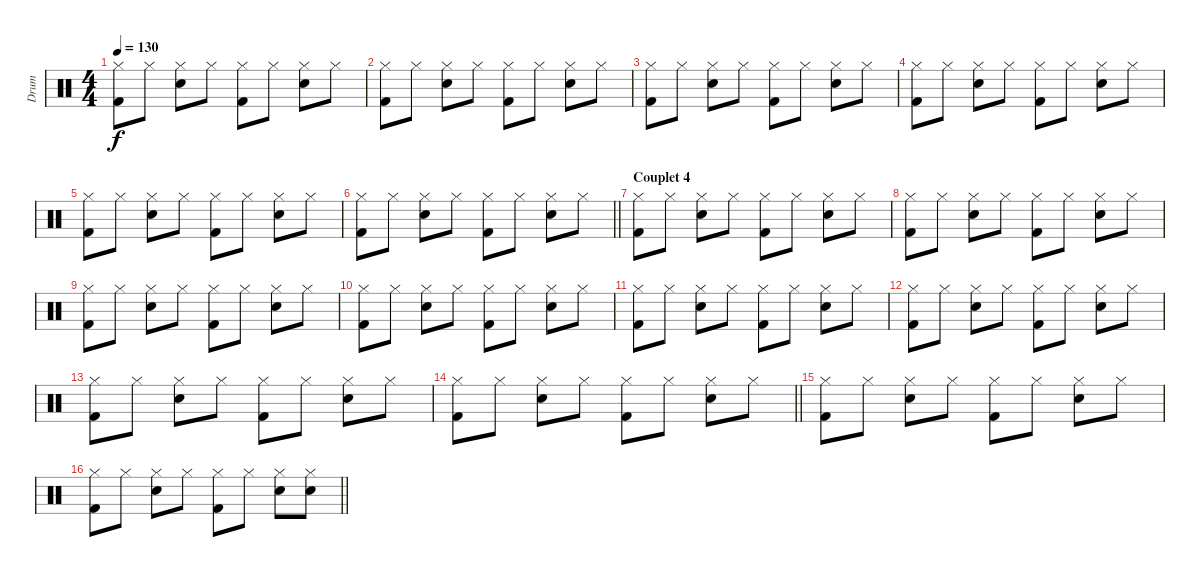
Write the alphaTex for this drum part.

\track ("Drum" "Drum") {instrument percussion}
\staff {score}
\articulation defaults
\ts (4 4)
\tempo 130
\clef neutral
\ks c
("Hi-Hat (closed)" "Kick (hit) 2").8{dy f} "Hi-Hat (closed)".8 ("Snare (hit) 2" "Hi-Hat (closed)").8 "Hi-Hat (closed)".8 ("Hi-Hat (closed)" "Kick (hit) 2").8 "Hi-Hat (closed)".8 ("Snare (hit) 2" "Hi-Hat (closed)").8 "Hi-Hat (closed)".8 |
("Hi-Hat (closed)" "Kick (hit) 2").8 "Hi-Hat (closed)".8 ("Snare (hit) 2" "Hi-Hat (closed)").8 "Hi-Hat (closed)".8 ("Hi-Hat (closed)" "Kick (hit) 2").8 "Hi-Hat (closed)".8 ("Snare (hit) 2" "Hi-Hat (closed)").8 "Hi-Hat (closed)".8 |
("Hi-Hat (closed)" "Kick (hit) 2").8 "Hi-Hat (closed)".8 ("Snare (hit) 2" "Hi-Hat (closed)").8 "Hi-Hat (closed)".8 ("Hi-Hat (closed)" "Kick (hit) 2").8 "Hi-Hat (closed)".8 ("Snare (hit) 2" "Hi-Hat (closed)").8 "Hi-Hat (closed)".8 |
("Hi-Hat (closed)" "Kick (hit) 2").8 "Hi-Hat (closed)".8 ("Snare (hit) 2" "Hi-Hat (closed)").8 "Hi-Hat (closed)".8 ("Hi-Hat (closed)" "Kick (hit) 2").8 "Hi-Hat (closed)".8 ("Snare (hit) 2" "Hi-Hat (closed)").8 "Hi-Hat (closed)".8 |
("Hi-Hat (closed)" "Kick (hit) 2").8 "Hi-Hat (closed)".8 ("Snare (hit) 2" "Hi-Hat (closed)").8 "Hi-Hat (closed)".8 ("Hi-Hat (closed)" "Kick (hit) 2").8 "Hi-Hat (closed)".8 ("Snare (hit) 2" "Hi-Hat (closed)").8 "Hi-Hat (closed)".8 |
\barLineRight lightlight
("Hi-Hat (closed)" "Kick (hit) 2").8 "Hi-Hat (closed)".8 ("Snare (hit) 2" "Hi-Hat (closed)").8 "Hi-Hat (closed)".8 ("Hi-Hat (closed)" "Kick (hit) 2").8 "Hi-Hat (closed)".8 ("Snare (hit) 2" "Hi-Hat (closed)").8 "Hi-Hat (closed)".8 |
\section ("" "Couplet 4")
("Hi-Hat (closed)" "Kick (hit) 2").8 "Hi-Hat (closed)".8 ("Snare (hit) 2" "Hi-Hat (closed)").8 "Hi-Hat (closed)".8 ("Hi-Hat (closed)" "Kick (hit) 2").8 "Hi-Hat (closed)".8 ("Snare (hit) 2" "Hi-Hat (closed)").8 "Hi-Hat (closed)".8 |
("Hi-Hat (closed)" "Kick (hit) 2").8 "Hi-Hat (closed)".8 ("Snare (hit) 2" "Hi-Hat (closed)").8 "Hi-Hat (closed)".8 ("Hi-Hat (closed)" "Kick (hit) 2").8 "Hi-Hat (closed)".8 ("Snare (hit) 2" "Hi-Hat (closed)").8 "Hi-Hat (closed)".8 |
("Hi-Hat (closed)" "Kick (hit) 2").8 "Hi-Hat (closed)".8 ("Snare (hit) 2" "Hi-Hat (closed)").8 "Hi-Hat (closed)".8 ("Hi-Hat (closed)" "Kick (hit) 2").8 "Hi-Hat (closed)".8 ("Snare (hit) 2" "Hi-Hat (closed)").8 "Hi-Hat (closed)".8 |
("Hi-Hat (closed)" "Kick (hit) 2").8 "Hi-Hat (closed)".8 ("Snare (hit) 2" "Hi-Hat (closed)").8 "Hi-Hat (closed)".8 ("Hi-Hat (closed)" "Kick (hit) 2").8 "Hi-Hat (closed)".8 ("Snare (hit) 2" "Hi-Hat (closed)").8 "Hi-Hat (closed)".8 |
("Hi-Hat (closed)" "Kick (hit) 2").8 "Hi-Hat (closed)".8 ("Snare (hit) 2" "Hi-Hat (closed)").8 "Hi-Hat (closed)".8 ("Hi-Hat (closed)" "Kick (hit) 2").8 "Hi-Hat (closed)".8 ("Snare (hit) 2" "Hi-Hat (closed)").8 "Hi-Hat (closed)".8 |
("Hi-Hat (closed)" "Kick (hit) 2").8 "Hi-Hat (closed)".8 ("Snare (hit) 2" "Hi-Hat (closed)").8 "Hi-Hat (closed)".8 ("Hi-Hat (closed)" "Kick (hit) 2").8 "Hi-Hat (closed)".8 ("Snare (hit) 2" "Hi-Hat (closed)").8 "Hi-Hat (closed)".8 |
("Hi-Hat (closed)" "Kick (hit) 2").8 "Hi-Hat (closed)".8 ("Snare (hit) 2" "Hi-Hat (closed)").8 "Hi-Hat (closed)".8 ("Hi-Hat (closed)" "Kick (hit) 2").8 "Hi-Hat (closed)".8 ("Snare (hit) 2" "Hi-Hat (closed)").8 "Hi-Hat (closed)".8 |
\barLineRight lightlight
("Hi-Hat (closed)" "Kick (hit) 2").8 "Hi-Hat (closed)".8 ("Snare (hit) 2" "Hi-Hat (closed)").8 "Hi-Hat (closed)".8 ("Hi-Hat (closed)" "Kick (hit) 2").8 "Hi-Hat (closed)".8 ("Snare (hit) 2" "Hi-Hat (closed)").8 "Hi-Hat (closed)".8 |
("Hi-Hat (closed)" "Kick (hit) 2").8 "Hi-Hat (closed)".8 ("Snare (hit) 2" "Hi-Hat (closed)").8 "Hi-Hat (closed)".8 ("Hi-Hat (closed)" "Kick (hit) 2").8 "Hi-Hat (closed)".8 ("Snare (hit) 2" "Hi-Hat (closed)").8 "Hi-Hat (closed)".8 |
\barLineRight lightlight
("Hi-Hat (closed)" "Kick (hit) 2").8 "Hi-Hat (closed)".8 ("Snare (hit) 2" "Hi-Hat (closed)").8 "Hi-Hat (closed)".8 ("Hi-Hat (closed)" "Kick (hit) 2").8 "Hi-Hat (closed)".8 ("Snare (hit) 2" "Hi-Hat (closed)").8 ("Snare (hit) 2" "Hi-Hat (closed)").8
